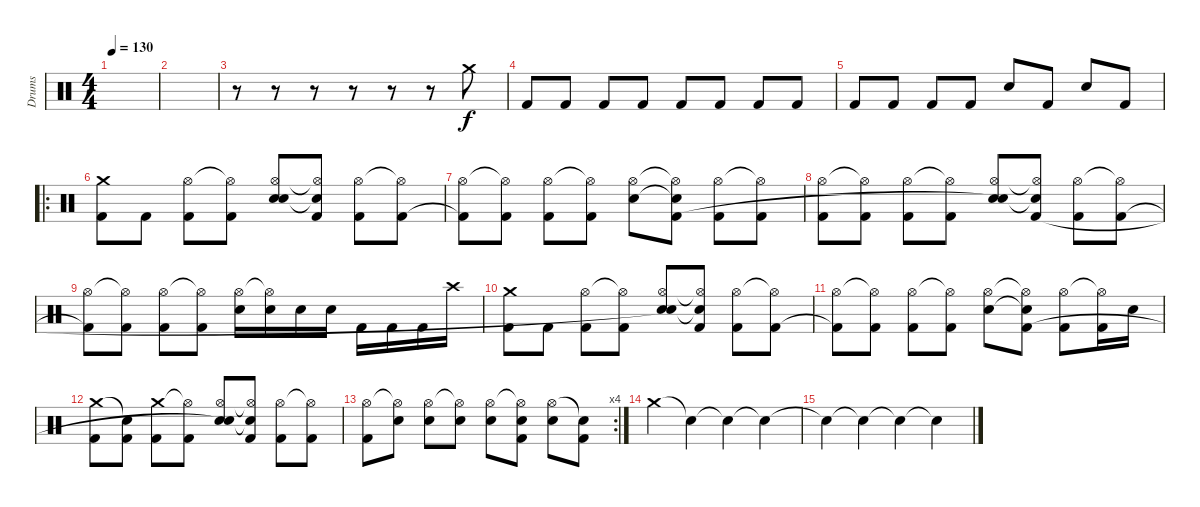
\track ("Drums" "Drums") {instrument percussion}
\staff {score}
\articulation defaults
\ts (4 4)
\tempo 130
\clef neutral
\ks c
|
|
r.8 r.8 r.8 r.8 r.8 r.8 "Crash medium (hit)".8 |
"Kick (hit) 2".8 "Kick (hit) 2".8 "Kick (hit) 2".8 "Kick (hit) 2".8 "Kick (hit) 2".8 "Kick (hit) 2".8 "Kick (hit) 2".8 "Kick (hit) 2".8 |
"Kick (hit) 2".8 "Kick (hit) 2".8 "Kick (hit) 2".8 "Kick (hit) 2".8 "Electric Snare (hit)".8 "Kick (hit) 2".8 "Electric Snare (hit)".8 "Kick (hit) 2".8 |
\ro
("Crash medium (hit)" "Kick (hit) 2").8 "Kick (hit) 2".8 ("Hi-Hat (open)" "Kick (hit) 2").8 ("Hi-Hat (open)"{t} "Kick (hit) 2").8 ("Hi-Hat (open)" "Electric Snare (hit)" "Snare (hit)").8 ("Hi-Hat (open)"{t} "Snare (hit) 2"{t} "Kick (hit) 2").8 ("Hi-Hat (open)" "Kick (hit) 2").8 ("Hi-Hat (open)"{t} "Kick (hit) 2").8 |
("Hi-Hat (open)" "Kick (hit) 2"{t}).8 ("Hi-Hat (open)"{t} "Kick (hit) 2").8 ("Hi-Hat (open)" "Kick (hit) 2").8 ("Hi-Hat (open)"{t} "Kick (hit) 2").8 ("Hi-Hat (open)" "Electric Snare (hit)").8 ("Hi-Hat (open)"{t} "Snare (hit)"{t} "Kick (hit) 2").8 ("Hi-Hat (open)" "Kick (hit) 2").8 ("Hi-Hat (open)"{t} "Kick (hit) 2").8 |
("Hi-Hat (open)" "Kick (hit) 2").8 ("Hi-Hat (open)"{t} "Kick (hit) 2").8 ("Hi-Hat (open)" "Kick (hit) 2").8 ("Hi-Hat (open)"{t} "Kick (hit) 2").8 ("Hi-Hat (open)" "Electric Snare (hit)" "Snare (hit)"{t}).8 ("Hi-Hat (open)"{t} "Snare (hit) 2"{t} "Kick (hit) 2").8 ("Hi-Hat (open)" "Kick (hit) 2").8 ("Hi-Hat (open)"{t} "Kick (hit) 2").8 |
("Hi-Hat (open)" "Kick (hit) 2"{t}).8 ("Hi-Hat (open)"{t} "Kick (hit) 2").8 ("Hi-Hat (open)" "Kick (hit) 2").8 ("Hi-Hat (open)"{t} "Kick (hit) 2").8 ("Hi-Hat (open)" "Electric Snare (hit)").16 ("Hi-Hat (open)"{t} "Electric Snare (hit)").16 "Electric Snare (hit)".16 "Electric Snare (hit)".16 "Kick (hit) 2".16 "Kick (hit) 2".16 "Kick (hit) 2".16 "Crash high (hit)".16 |
("Crash medium (hit)" "Kick (hit) 2").8 "Kick (hit) 2".8 ("Hi-Hat (open)" "Kick (hit) 2").8 ("Hi-Hat (open)"{t} "Kick (hit) 2").8 ("Hi-Hat (open)" "Electric Snare (hit)" "Snare (hit)"{t}).8 ("Hi-Hat (open)"{t} "Snare (hit) 2"{t} "Kick (hit) 2").8 ("Hi-Hat (open)" "Kick (hit) 2").8 ("Hi-Hat (open)"{t} "Kick (hit) 2").8 |
("Hi-Hat (open)" "Kick (hit) 2"{t}).8 ("Hi-Hat (open)"{t} "Kick (hit) 2").8 ("Hi-Hat (open)" "Kick (hit) 2").8 ("Hi-Hat (open)"{t} "Kick (hit) 2").8 ("Hi-Hat (open)" "Electric Snare (hit)").8 ("Hi-Hat (open)"{t} "Snare (hit)"{t} "Kick (hit) 2").8 ("Hi-Hat (open)" "Kick (hit) 2").8 ("Hi-Hat (open)"{t} "Kick (hit) 2").16 "Electric Snare (hit)".16 |
("Crash medium (hit)" "Kick (hit) 2").8 ("Snare (hit)"{t} "Kick (hit) 2").8 ("Crash medium (hit)" "Kick (hit) 2").8 ("Hi-Hat (open)"{t} "Kick (hit) 2").8 ("Hi-Hat (open)" "Electric Snare (hit)" "Snare (hit)"{t}).8 ("Hi-Hat (open)"{t} "Snare (hit) 2"{t} "Kick (hit) 2").8 ("Hi-Hat (open)" "Kick (hit) 2").8 ("Hi-Hat (open)"{t} "Kick (hit) 2").8 |
\rc 4
("Hi-Hat (open)" "Kick (hit) 2").8 ("Hi-Hat (open)"{t} "Electric Snare (hit)").8 ("Hi-Hat (open)" "Electric Snare (hit)").8 ("Hi-Hat (open)"{t} "Electric Snare (hit)").8 ("Hi-Hat (open)" "Electric Snare (hit)").8 ("Hi-Hat (open)"{t} "Electric Snare (hit)" "Kick (hit) 2").8 ("Hi-Hat (open)" "Electric Snare (hit)").8 ("Snare (hit)"{t} "Kick (hit) 2").8 |
"Crash medium (hit)".4 "Snare (hit)"{t}.4 "Snare (hit)"{t}.4 "Snare (hit)"{t}.4 |
"Snare (hit)"{t}.4 "Snare (hit)"{t}.4 "Snare (hit)"{t}.4 "Snare (hit)"{t}.4
